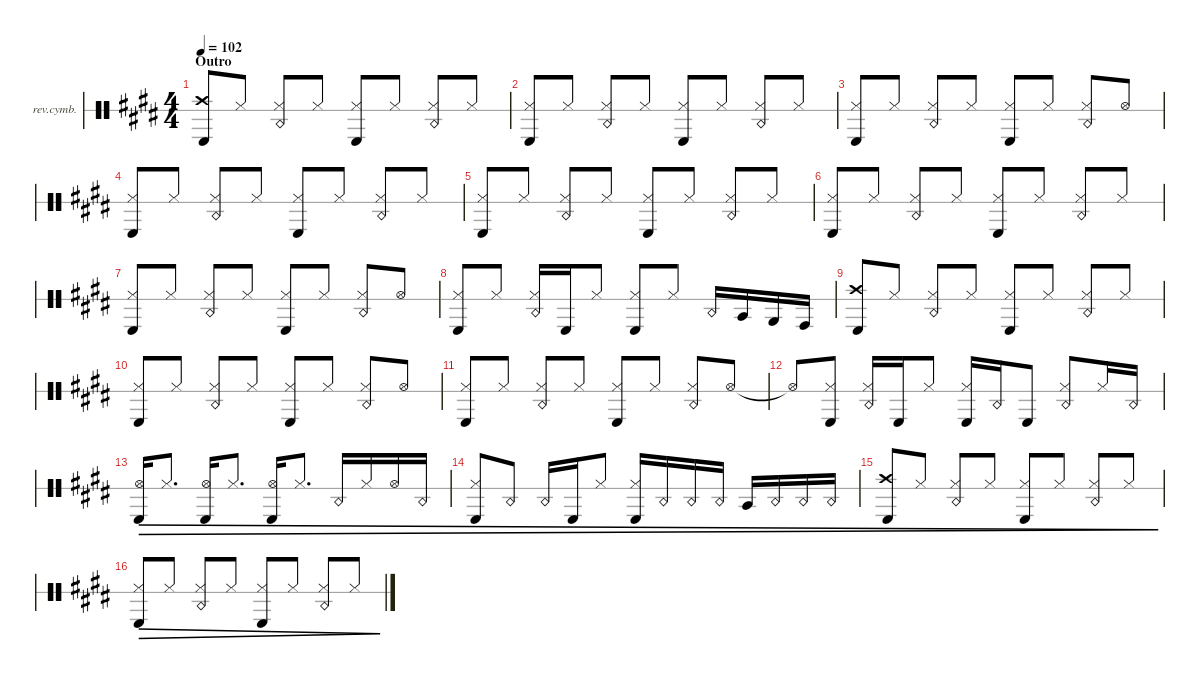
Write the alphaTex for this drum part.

\defaultSystemsLayout 4
\hideDynamics
\bracketExtendMode nobrackets
\firstSystemTrackNameOrientation horizontal
\otherSystemsTrackNameOrientation horizontal
\track ("Reverse Cymbal" "rev.cymb.") {defaultSystemsLayout 4 instrument percussion}
\staff {score 1}
\articulation defaults
\ts (4 4)
\section ("" "Outro")
\tempo 102
\clef neutral
\ks e
("Kick (hit) 2"{acc forcenatural} "Crash high (hit)"{acc forcenatural}).8{dy mf beam Up} "Hi-Hat (closed)"{acc forcenatural}.8{beam Up} ("Hi-Hat (closed)"{acc forcenatural} "Snare (rim shot)"{acc forcenatural}).8{dy f beam Up} "Hi-Hat (closed)"{acc forcenatural}.8{dy mf beam Up} ("Kick (hit) 2"{acc forcenatural} "Hi-Hat (closed)"{acc forcenatural}).8{beam Up} "Hi-Hat (closed)"{acc forcenatural}.8{beam Up} ("Hi-Hat (closed)"{acc forcenatural} "Snare (rim shot)"{acc forcenatural}).8{dy f beam Up} "Hi-Hat (closed)"{acc forcenatural}.8{dy mf beam Up} |
("Kick (hit) 2"{acc forcenatural} "Hi-Hat (closed)"{acc forcenatural}).8{beam Up} "Hi-Hat (closed)"{acc forcenatural}.8{beam Up} ("Hi-Hat (closed)"{acc forcenatural} "Snare (rim shot)"{acc forcenatural}).8{dy f beam Up} "Hi-Hat (closed)"{acc forcenatural}.8{dy mf beam Up} ("Kick (hit) 2"{acc forcenatural} "Hi-Hat (closed)"{acc forcenatural}).8{beam Up} "Hi-Hat (closed)"{acc forcenatural}.8{beam Up} ("Hi-Hat (closed)"{acc forcenatural} "Snare (rim shot)"{acc forcenatural}).8{dy f beam Up} "Hi-Hat (closed)"{acc forcenatural}.8{dy mf beam Up} |
("Kick (hit) 2"{acc forcenatural} "Hi-Hat (closed)"{acc forcenatural}).8{beam Up} "Hi-Hat (closed)"{acc forcenatural}.8{beam Up} ("Hi-Hat (closed)"{acc forcenatural} "Snare (rim shot)"{acc forcenatural}).8{dy f beam Up} "Hi-Hat (closed)"{acc forcenatural}.8{dy mf beam Up} ("Kick (hit) 2"{acc forcenatural} "Hi-Hat (closed)"{acc forcenatural}).8{beam Up} "Hi-Hat (closed)"{acc forcenatural}.8{beam Up} ("Hi-Hat (closed)"{acc forcenatural} "Snare (rim shot)"{acc forcenatural}).8{dy f beam Up} "Hi-Hat (open)"{acc forcenatural}.8{dy mf beam Up} |
("Kick (hit) 2"{acc forcenatural} "Hi-Hat (closed)"{acc forcenatural}).8{beam Up} "Hi-Hat (closed)"{acc forcenatural}.8{beam Up} ("Hi-Hat (closed)"{acc forcenatural} "Snare (rim shot)"{acc forcenatural}).8{dy f beam Up} "Hi-Hat (closed)"{acc forcenatural}.8{dy mf beam Up} ("Kick (hit) 2"{acc forcenatural} "Hi-Hat (closed)"{acc forcenatural}).8{beam Up} "Hi-Hat (closed)"{acc forcenatural}.8{beam Up} ("Hi-Hat (closed)"{acc forcenatural} "Snare (rim shot)"{acc forcenatural}).8{dy f beam Up} "Hi-Hat (closed)"{acc forcenatural}.8{dy mf beam Up} |
("Kick (hit) 2"{acc forcenatural} "Hi-Hat (closed)"{acc forcenatural}).8{beam Up} "Hi-Hat (closed)"{acc forcenatural}.8{beam Up} ("Hi-Hat (closed)"{acc forcenatural} "Snare (rim shot)"{acc forcenatural}).8{dy f beam Up} "Hi-Hat (closed)"{acc forcenatural}.8{dy mf beam Up} ("Kick (hit) 2"{acc forcenatural} "Hi-Hat (closed)"{acc forcenatural}).8{beam Up} "Hi-Hat (closed)"{acc forcenatural}.8{beam Up} ("Hi-Hat (closed)"{acc forcenatural} "Snare (rim shot)"{acc forcenatural}).8{dy f beam Up} "Hi-Hat (closed)"{acc forcenatural}.8{dy mf beam Up} |
("Kick (hit) 2"{acc forcenatural} "Hi-Hat (closed)"{acc forcenatural}).8{beam Up} "Hi-Hat (closed)"{acc forcenatural}.8{beam Up} ("Hi-Hat (closed)"{acc forcenatural} "Snare (rim shot)"{acc forcenatural}).8{dy f beam Up} "Hi-Hat (closed)"{acc forcenatural}.8{dy mf beam Up} ("Kick (hit) 2"{acc forcenatural} "Hi-Hat (closed)"{acc forcenatural}).8{beam Up} "Hi-Hat (closed)"{acc forcenatural}.8{beam Up} ("Hi-Hat (closed)"{acc forcenatural} "Snare (rim shot)"{acc forcenatural}).8{dy f beam Up} "Hi-Hat (closed)"{acc forcenatural}.8{dy mf beam Up} |
("Kick (hit) 2"{acc forcenatural} "Hi-Hat (closed)"{acc forcenatural}).8{beam Up} "Hi-Hat (closed)"{acc forcenatural}.8{beam Up} ("Hi-Hat (closed)"{acc forcenatural} "Snare (rim shot)"{acc forcenatural}).8{dy f beam Up} "Hi-Hat (closed)"{acc forcenatural}.8{dy mf beam Up} ("Kick (hit) 2"{acc forcenatural} "Hi-Hat (closed)"{acc forcenatural}).8{beam Up} "Hi-Hat (closed)"{acc forcenatural}.8{beam Up} ("Hi-Hat (closed)"{acc forcenatural} "Snare (rim shot)"{acc forcenatural}).8{dy f beam Up} "Hi-Hat (open)"{acc forcenatural}.8{dy mf beam Up} |
("Kick (hit) 2"{acc forcenatural} "Hi-Hat (closed)"{acc forcenatural}).8{beam Up} "Hi-Hat (closed)"{acc forcenatural}.8{beam Up} ("Hi-Hat (closed)"{acc forcenatural} "Snare (rim shot)"{acc forcenatural}).16{dy f beam Up} "Kick (hit) 2"{acc forcenatural}.16{dy mf beam Up} "Hi-Hat (closed)"{acc forcenatural}.8{beam Up} ("Hi-Hat (closed)"{acc forcenatural} "Kick (hit) 2"{acc forcenatural}).8{beam Up} "Hi-Hat (closed)"{acc forcenatural}.8{beam Up} "Snare (rim shot)"{acc forcenatural}.16{dy f beam Up} "Mid Tom (hit)"{acc forcenatural}.16{beam Up} "Low Tom (hit)"{acc forcenatural}.16{beam Up} "Very Low Tom (hit)"{acc forcenatural}.16{beam Up} |
("Kick (hit) 2"{acc forcenatural} "Crash high (hit)"{acc forcenatural}).8{dy mf beam Up} "Hi-Hat (closed)"{acc forcenatural}.8{beam Up} ("Hi-Hat (closed)"{acc forcenatural} "Snare (rim shot)"{acc forcenatural}).8{dy f beam Up} "Hi-Hat (closed)"{acc forcenatural}.8{dy mf beam Up} ("Kick (hit) 2"{acc forcenatural} "Hi-Hat (closed)"{acc forcenatural}).8{beam Up} "Hi-Hat (closed)"{acc forcenatural}.8{beam Up} ("Hi-Hat (closed)"{acc forcenatural} "Snare (rim shot)"{acc forcenatural}).8{dy f beam Up} "Hi-Hat (closed)"{acc forcenatural}.8{dy mf beam Up} |
("Kick (hit) 2"{acc forcenatural} "Hi-Hat (closed)"{acc forcenatural}).8{beam Up} "Hi-Hat (closed)"{acc forcenatural}.8{beam Up} ("Hi-Hat (closed)"{acc forcenatural} "Snare (rim shot)"{acc forcenatural}).8{dy f beam Up} "Hi-Hat (closed)"{acc forcenatural}.8{dy mf beam Up} ("Kick (hit) 2"{acc forcenatural} "Hi-Hat (closed)"{acc forcenatural}).8{beam Up} "Hi-Hat (closed)"{acc forcenatural}.8{beam Up} ("Hi-Hat (closed)"{acc forcenatural} "Snare (rim shot)"{acc forcenatural}).8{dy f beam Up} "Hi-Hat (open)"{acc forcenatural}.8{dy mf beam Up} |
("Kick (hit) 2"{acc forcenatural} "Hi-Hat (closed)"{acc forcenatural}).8{beam Up} "Hi-Hat (closed)"{acc forcenatural}.8{beam Up} ("Hi-Hat (closed)"{acc forcenatural} "Snare (rim shot)"{acc forcenatural}).8{dy f beam Up} "Hi-Hat (closed)"{acc forcenatural}.8{dy mf beam Up} ("Kick (hit) 2"{acc forcenatural} "Hi-Hat (closed)"{acc forcenatural}).8{beam Up} "Hi-Hat (closed)"{acc forcenatural}.8{beam Up} ("Hi-Hat (closed)"{acc forcenatural} "Snare (rim shot)"{acc forcenatural}).8{dy f beam Up} "Hi-Hat (open)"{acc forcenatural}.8{dy mf beam Up} |
"Hi-Hat (open)"{t acc forcenatural}.8{beam Up} ("Hi-Hat (closed)"{acc forcenatural} "Kick (hit) 2"{acc forcenatural}).8{beam Up} ("Hi-Hat (closed)"{acc forcenatural} "Snare (rim shot)"{acc forcenatural}).16{dy f beam Up} "Kick (hit) 2"{acc forcenatural}.16{dy mf beam Up} "Hi-Hat (closed)"{acc forcenatural}.8{beam Up} ("Hi-Hat (closed)"{acc forcenatural} "Kick (hit) 2"{acc forcenatural}).16{beam Up} "Snare (rim shot)"{acc forcenatural}.16{dy f beam Up} "Kick (hit) 2"{acc forcenatural}.8{dy mf beam Up} ("Hi-Hat (closed)"{acc forcenatural} "Snare (rim shot)"{acc forcenatural}).8{dy f beam Up} "Hi-Hat (closed)"{acc forcenatural}.16{dy mf beam Up} "Snare (rim shot)"{acc forcenatural}.16{dy f beam Up} |
("Kick (hit) 2"{acc forcenatural} "Hi-Hat (open)"{acc forcenatural}).16{dec beam Up} "Hi-Hat (closed)"{acc forcenatural}.8{d dec dy p beam Up} ("Kick (hit) 2"{acc forcenatural} "Hi-Hat (open)"{acc forcenatural}).16{dec dy mf beam Up} "Hi-Hat (closed)"{acc forcenatural}.8{d dec dy p beam Up} ("Kick (hit) 2"{acc forcenatural} "Hi-Hat (open)"{acc forcenatural}).16{dec dy mf beam Up} "Hi-Hat (closed)"{acc forcenatural}.8{d dec dy p beam Up} "Snare (rim shot)"{acc forcenatural}.16{dec dy mf beam Up} "Hi-Hat (closed)"{acc forcenatural}.16{dec beam Up} "Hi-Hat (open)"{acc forcenatural}.16{dec beam Up} "Snare (rim shot)"{acc forcenatural}.16{dec dy mp beam Up} |
("Kick (hit) 2"{acc forcenatural} "Hi-Hat (closed)"{acc forcenatural}).8{dec beam Up} "Snare (rim shot)"{acc forcenatural}.8{dec beam Up} "Snare (rim shot)"{acc forcenatural}.16{dec beam Up} "Kick (hit) 2"{acc forcenatural}.16{dec beam Up} "Hi-Hat (closed)"{acc forcenatural}.8{dec beam Up} ("Hi-Hat (closed)"{acc forcenatural} "Kick (hit) 2"{acc forcenatural}).16{dec beam Up} "Snare (rim shot)"{acc forcenatural}.16{dec beam Up} "Snare (rim shot)"{acc forcenatural}.16{dec beam Up} "Snare (rim shot)"{acc forcenatural}.16{dec beam Up} "Mid Tom (hit)"{acc forcenatural}.16{dec beam Up} "Snare (rim shot)"{acc forcenatural}.16{dec beam Up} "Snare (rim shot)"{acc forcenatural}.16{dec beam Up} "Snare (rim shot)"{acc forcenatural}.16{dec beam Up} |
("Kick (hit) 2"{acc forcenatural} "Crash high (hit)"{acc forcenatural}).8{dec dy p beam Up} "Hi-Hat (closed)"{acc forcenatural}.8{dec beam Up} ("Hi-Hat (closed)"{acc forcenatural} "Snare (rim shot)"{acc forcenatural}).8{dec beam Up} "Hi-Hat (closed)"{acc forcenatural}.8{dec beam Up} ("Kick (hit) 2"{acc forcenatural} "Hi-Hat (closed)"{acc forcenatural}).8{dec beam Up} "Hi-Hat (closed)"{acc forcenatural}.8{dec beam Up} ("Hi-Hat (closed)"{acc forcenatural} "Snare (rim shot)"{acc forcenatural}).8{dec beam Up} "Hi-Hat (closed)"{acc forcenatural}.8{dec beam Up} |
("Kick (hit) 2"{acc forcenatural} "Hi-Hat (closed)"{acc forcenatural}).8{dec dy pp beam Up} "Hi-Hat (closed)"{acc forcenatural}.8{dec beam Up} ("Hi-Hat (closed)"{acc forcenatural} "Snare (rim shot)"{acc forcenatural}).8{dec beam Up} "Hi-Hat (closed)"{acc forcenatural}.8{dec beam Up} ("Kick (hit) 2"{acc forcenatural} "Hi-Hat (closed)"{acc forcenatural}).8{dec dy ppp beam Up} "Hi-Hat (closed)"{acc forcenatural}.8{dec beam Up} ("Hi-Hat (closed)"{acc forcenatural} "Snare (rim shot)"{acc forcenatural}).8{dec beam Up} "Hi-Hat (closed)"{acc forcenatural}.8{dec beam Up}
